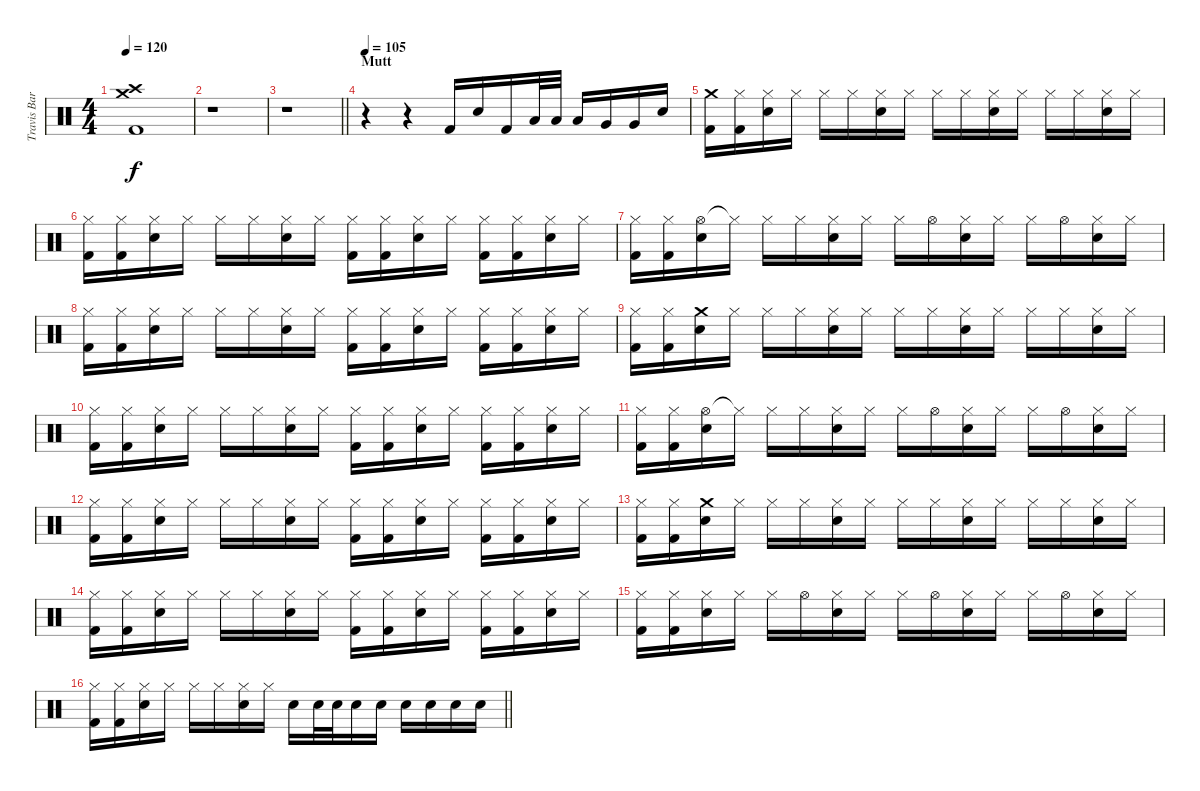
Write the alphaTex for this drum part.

\track ("Travis Barker" "Travis Bar") {instrument percussion}
\staff {score}
\articulation defaults
\ts (4 4)
\tempo 120
\clef neutral
\ks c
("Crash medium (hit)" "Crash high (hit)" "Kick (hit) 2").1{dy f} |
r.1 |
\barLineRight lightlight
r.1 |
\section ("" "Mutt")
\tempo 105
r.4 r.4 "Kick (hit) 2".16 "Electric Snare (hit)".16 "Kick (hit) 2".16 "Low Tom (hit)".32 "Low Tom (hit)".32 "Low Tom (hit)".16 "Very Low Tom (hit)".16 "Very Low Tom (hit)".16 "Electric Snare (hit)".16 |
("Crash medium (hit)" "Kick (hit) 2").16 ("Hi-Hat (closed)" "Kick (hit) 2").16 ("Hi-Hat (closed)" "Electric Snare (hit)").16 "Hi-Hat (closed)".16 "Hi-Hat (closed)".16 "Hi-Hat (closed)".16 ("Hi-Hat (closed)" "Electric Snare (hit)").16 "Hi-Hat (closed)".16 "Hi-Hat (closed)".16 "Hi-Hat (closed)".16 ("Hi-Hat (closed)" "Electric Snare (hit)").16 "Hi-Hat (closed)".16 "Hi-Hat (closed)".16 "Hi-Hat (closed)".16 ("Hi-Hat (closed)" "Electric Snare (hit)").16 "Hi-Hat (closed)".16 |
("Hi-Hat (closed)" "Kick (hit) 2").16 ("Hi-Hat (closed)" "Kick (hit) 2").16 ("Hi-Hat (closed)" "Electric Snare (hit)").16 "Hi-Hat (closed)".16 "Hi-Hat (closed)".16 "Hi-Hat (closed)".16 ("Hi-Hat (closed)" "Electric Snare (hit)").16 "Hi-Hat (closed)".16 ("Hi-Hat (closed)" "Kick (hit) 2").16 ("Hi-Hat (closed)" "Kick (hit) 2").16 ("Hi-Hat (closed)" "Electric Snare (hit)").16 "Hi-Hat (closed)".16 ("Hi-Hat (closed)" "Kick (hit) 2").16 ("Hi-Hat (closed)" "Kick (hit) 2").16 ("Hi-Hat (closed)" "Electric Snare (hit)").16 "Hi-Hat (closed)".16 |
("Hi-Hat (closed)" "Kick (hit) 2").16 ("Hi-Hat (closed)" "Kick (hit) 2").16 ("Hi-Hat (open)" "Electric Snare (hit)").16 "Hi-Hat (closed)"{t}.16 "Hi-Hat (closed)".16 "Hi-Hat (closed)".16 ("Hi-Hat (closed)" "Electric Snare (hit)").16 "Hi-Hat (closed)".16 "Hi-Hat (closed)".16 "Hi-Hat (open)".16 ("Hi-Hat (closed)" "Electric Snare (hit)").16 "Hi-Hat (closed)".16 "Hi-Hat (closed)".16 "Hi-Hat (open)".16 ("Hi-Hat (closed)" "Electric Snare (hit)").16 "Hi-Hat (closed)".16 |
("Hi-Hat (closed)" "Kick (hit) 2").16 ("Hi-Hat (closed)" "Kick (hit) 2").16 ("Hi-Hat (closed)" "Electric Snare (hit)").16 "Hi-Hat (closed)".16 "Hi-Hat (closed)".16 "Hi-Hat (closed)".16 ("Hi-Hat (closed)" "Electric Snare (hit)").16 "Hi-Hat (closed)".16 ("Hi-Hat (closed)" "Kick (hit) 2").16 ("Hi-Hat (closed)" "Kick (hit) 2").16 ("Hi-Hat (closed)" "Electric Snare (hit)").16 "Hi-Hat (closed)".16 ("Hi-Hat (closed)" "Kick (hit) 2").16 ("Hi-Hat (closed)" "Kick (hit) 2").16 ("Hi-Hat (closed)" "Electric Snare (hit)").16 "Hi-Hat (closed)".16 |
("Hi-Hat (closed)" "Kick (hit) 2").16 ("Hi-Hat (closed)" "Kick (hit) 2").16 ("Crash medium (hit)" "Electric Snare (hit)").16 "Hi-Hat (closed)".16 "Hi-Hat (closed)".16 "Hi-Hat (closed)".16 ("Hi-Hat (closed)" "Electric Snare (hit)").16 "Hi-Hat (closed)".16 "Hi-Hat (closed)".16 "Hi-Hat (closed)".16 ("Hi-Hat (closed)" "Electric Snare (hit)").16 "Hi-Hat (closed)".16 "Hi-Hat (closed)".16 "Hi-Hat (closed)".16 ("Hi-Hat (closed)" "Electric Snare (hit)").16 "Hi-Hat (closed)".16 |
("Hi-Hat (closed)" "Kick (hit) 2").16 ("Hi-Hat (closed)" "Kick (hit) 2").16 ("Hi-Hat (closed)" "Electric Snare (hit)").16 "Hi-Hat (closed)".16 "Hi-Hat (closed)".16 "Hi-Hat (closed)".16 ("Hi-Hat (closed)" "Electric Snare (hit)").16 "Hi-Hat (closed)".16 ("Hi-Hat (closed)" "Kick (hit) 2").16 ("Hi-Hat (closed)" "Kick (hit) 2").16 ("Hi-Hat (closed)" "Electric Snare (hit)").16 "Hi-Hat (closed)".16 ("Hi-Hat (closed)" "Kick (hit) 2").16 ("Hi-Hat (closed)" "Kick (hit) 2").16 ("Hi-Hat (closed)" "Electric Snare (hit)").16 "Hi-Hat (closed)".16 |
("Hi-Hat (closed)" "Kick (hit) 2").16 ("Hi-Hat (closed)" "Kick (hit) 2").16 ("Hi-Hat (open)" "Electric Snare (hit)").16 "Hi-Hat (closed)"{t}.16 "Hi-Hat (closed)".16 "Hi-Hat (closed)".16 ("Hi-Hat (closed)" "Electric Snare (hit)").16 "Hi-Hat (closed)".16 "Hi-Hat (closed)".16 "Hi-Hat (open)".16 ("Hi-Hat (closed)" "Electric Snare (hit)").16 "Hi-Hat (closed)".16 "Hi-Hat (closed)".16 "Hi-Hat (open)".16 ("Hi-Hat (closed)" "Electric Snare (hit)").16 "Hi-Hat (closed)".16 |
("Hi-Hat (closed)" "Kick (hit) 2").16 ("Hi-Hat (closed)" "Kick (hit) 2").16 ("Hi-Hat (closed)" "Electric Snare (hit)").16 "Hi-Hat (closed)".16 "Hi-Hat (closed)".16 "Hi-Hat (closed)".16 ("Hi-Hat (closed)" "Electric Snare (hit)").16 "Hi-Hat (closed)".16 ("Hi-Hat (closed)" "Kick (hit) 2").16 ("Hi-Hat (closed)" "Kick (hit) 2").16 ("Hi-Hat (closed)" "Electric Snare (hit)").16 "Hi-Hat (closed)".16 ("Hi-Hat (closed)" "Kick (hit) 2").16 ("Hi-Hat (closed)" "Kick (hit) 2").16 ("Hi-Hat (closed)" "Electric Snare (hit)").16 "Hi-Hat (closed)".16 |
("Hi-Hat (closed)" "Kick (hit) 2").16 ("Hi-Hat (closed)" "Kick (hit) 2").16 ("Crash medium (hit)" "Electric Snare (hit)").16 "Hi-Hat (closed)".16 "Hi-Hat (closed)".16 "Hi-Hat (closed)".16 ("Hi-Hat (closed)" "Electric Snare (hit)").16 "Hi-Hat (closed)".16 "Hi-Hat (closed)".16 "Hi-Hat (closed)".16 ("Hi-Hat (closed)" "Electric Snare (hit)").16 "Hi-Hat (closed)".16 "Hi-Hat (closed)".16 "Hi-Hat (closed)".16 ("Hi-Hat (closed)" "Electric Snare (hit)").16 "Hi-Hat (closed)".16 |
("Hi-Hat (closed)" "Kick (hit) 2").16 ("Hi-Hat (closed)" "Kick (hit) 2").16 ("Hi-Hat (closed)" "Electric Snare (hit)").16 "Hi-Hat (closed)".16 "Hi-Hat (closed)".16 "Hi-Hat (closed)".16 ("Hi-Hat (closed)" "Electric Snare (hit)").16 "Hi-Hat (closed)".16 ("Hi-Hat (closed)" "Kick (hit) 2").16 ("Hi-Hat (closed)" "Kick (hit) 2").16 ("Hi-Hat (closed)" "Electric Snare (hit)").16 "Hi-Hat (closed)".16 ("Hi-Hat (closed)" "Kick (hit) 2").16 ("Hi-Hat (closed)" "Kick (hit) 2").16 ("Hi-Hat (closed)" "Electric Snare (hit)").16 "Hi-Hat (closed)".16 |
("Hi-Hat (closed)" "Kick (hit) 2").16 ("Hi-Hat (closed)" "Kick (hit) 2").16 ("Hi-Hat (closed)" "Electric Snare (hit)").16 "Hi-Hat (closed)".16 "Hi-Hat (closed)".16 "Hi-Hat (open)".16 ("Hi-Hat (closed)" "Electric Snare (hit)").16 "Hi-Hat (closed)".16 "Hi-Hat (closed)".16 "Hi-Hat (open)".16 ("Hi-Hat (closed)" "Electric Snare (hit)").16 "Hi-Hat (closed)".16 "Hi-Hat (closed)".16 "Hi-Hat (open)".16 ("Hi-Hat (closed)" "Electric Snare (hit)").16 "Hi-Hat (closed)".16 |
\barLineRight lightlight
("Hi-Hat (closed)" "Kick (hit) 2").16 ("Hi-Hat (closed)" "Kick (hit) 2").16 ("Hi-Hat (closed)" "Electric Snare (hit)").16 "Hi-Hat (closed)".16 "Hi-Hat (closed)".16 "Hi-Hat (closed)".16 ("Hi-Hat (closed)" "Electric Snare (hit)").16 "Hi-Hat (closed)".16 "Electric Snare (hit)".16 "Electric Snare (hit)".32 "Electric Snare (hit)".32 "Electric Snare (hit)".16 "Electric Snare (hit)".16 "Electric Snare (hit)".16 "Electric Snare (hit)".16 "Electric Snare (hit)".16 "Electric Snare (hit)".16
